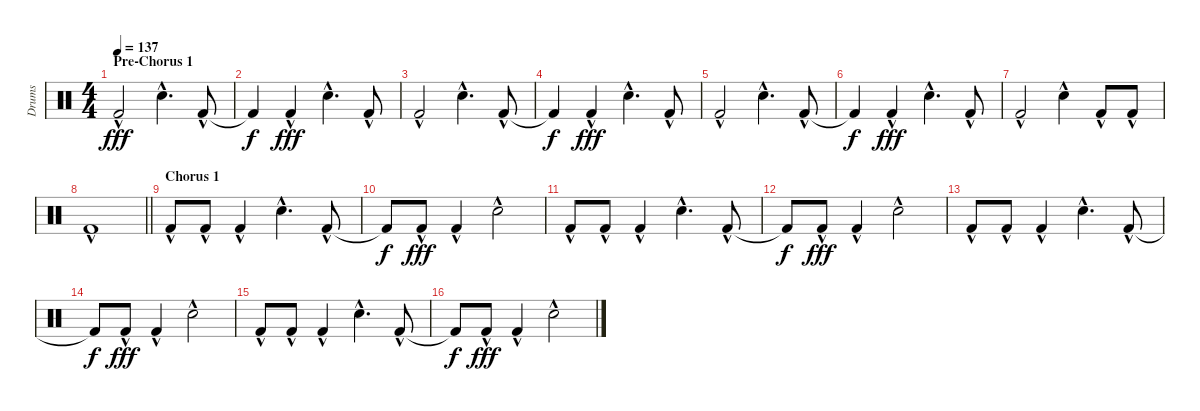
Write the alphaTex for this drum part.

\track ("Drums" "Drums") {instrument percussion}
\staff {score}
\articulation defaults
\ts (4 4)
\section ("" "Pre-Chorus 1")
\tempo 137
\clef neutral
\ks c "Kick (hit) 2"{hac}.2{dy fff} "Snare (hit) 2"{hac}.4{d} "Kick (hit) 2"{hac}.8
|
"Kick (hit) 2"{t}.4{dy f} "Kick (hit) 2"{hac}.4{dy fff} "Snare (hit) 2"{hac}.4{d} "Kick (hit) 2"{hac}.8 |
"Kick (hit) 2"{hac}.2 "Snare (hit) 2"{hac}.4{d} "Kick (hit) 2"{hac}.8 |
"Kick (hit) 2"{t}.4{dy f} "Kick (hit) 2"{hac}.4{dy fff} "Snare (hit) 2"{hac}.4{d} "Kick (hit) 2"{hac}.8 |
"Kick (hit) 2"{hac}.2 "Snare (hit) 2"{hac}.4{d} "Kick (hit) 2"{hac}.8 |
"Kick (hit) 2"{t}.4{dy f} "Kick (hit) 2"{hac}.4{dy fff} "Snare (hit) 2"{hac}.4{d} "Kick (hit) 2"{hac}.8 |
"Kick (hit) 2"{hac}.2 "Snare (hit) 2"{hac}.4 "Kick (hit) 2"{hac}.8 "Kick (hit) 2"{hac}.8 |
\barLineRight lightlight "Kick (hit) 2"{hac}.1
|
\section ("" "Chorus 1")
"Kick (hit) 2"{hac}.8 "Kick (hit) 2"{hac}.8 "Kick (hit) 2"{hac}.4 "Snare (hit) 2"{hac}.4{d} "Kick (hit) 2"{hac}.8 |
"Kick (hit) 2"{t}.8{dy f} "Kick (hit) 2"{hac}.8{dy fff} "Kick (hit) 2"{hac}.4 "Snare (hit) 2"{hac}.2 |
"Kick (hit) 2"{hac}.8 "Kick (hit) 2"{hac}.8 "Kick (hit) 2"{hac}.4 "Snare (hit) 2"{hac}.4{d} "Kick (hit) 2"{hac}.8 |
"Kick (hit) 2"{t}.8{dy f} "Kick (hit) 2"{hac}.8{dy fff} "Kick (hit) 2"{hac}.4 "Snare (hit) 2"{hac}.2 |
"Kick (hit) 2"{hac}.8 "Kick (hit) 2"{hac}.8 "Kick (hit) 2"{hac}.4 "Snare (hit) 2"{hac}.4{d} "Kick (hit) 2"{hac}.8 |
"Kick (hit) 2"{t}.8{dy f} "Kick (hit) 2"{hac}.8{dy fff} "Kick (hit) 2"{hac}.4 "Snare (hit) 2"{hac}.2 |
"Kick (hit) 2"{hac}.8 "Kick (hit) 2"{hac}.8 "Kick (hit) 2"{hac}.4 "Snare (hit) 2"{hac}.4{d} "Kick (hit) 2"{hac}.8 |
"Kick (hit) 2"{t}.8{dy f} "Kick (hit) 2"{hac}.8{dy fff} "Kick (hit) 2"{hac}.4 "Snare (hit) 2"{hac}.2
